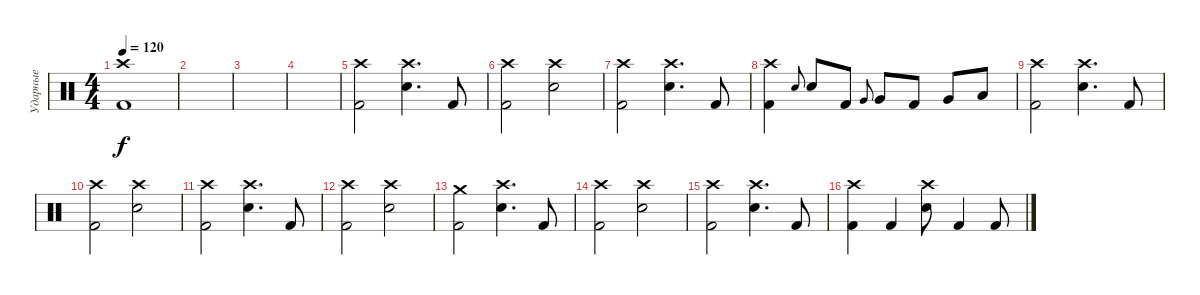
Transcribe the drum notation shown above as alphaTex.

\track ("Ударные" "Ударные") {instrument percussion}
\staff {score}
\articulation defaults
\ts (4 4)
\tempo 120
\clef neutral
\ks c
("Crash high (hit)" "Kick (hit) 2").1{dy f} |
|
|
|
("Crash high (hit)" "Kick (hit) 2").2 ("Crash high (hit)" "Snare (hit) 2").4{d} "Kick (hit) 2".8 |
("Crash high (hit)" "Kick (hit) 2").2 ("Crash high (hit)" "Snare (hit) 2").2 |
("Crash high (hit)" "Kick (hit) 2").2 ("Crash high (hit)" "Snare (hit) 2").4{d} "Kick (hit) 2".8 |
("Crash high (hit)" "Kick (hit) 2").4 "Snare (hit) 2".8{gr onbeat} "Snare (hit) 2".8 "Kick (hit) 2".8 "Very Low Tom (hit)".8{gr onbeat} "Very Low Tom (hit)".8 "Kick (hit) 2".8 "Very Low Tom (hit)".8 "Low Floor Tom (hit)".8 |
("Crash high (hit)" "Kick (hit) 2").2 ("Crash high (hit)" "Snare (hit) 2").4{d} "Kick (hit) 2".8 |
("Crash high (hit)" "Kick (hit) 2").2 ("Crash high (hit)" "Snare (hit) 2").2 |
("Crash high (hit)" "Kick (hit) 2").2 ("Crash high (hit)" "Snare (hit) 2").4{d} "Kick (hit) 2".8 |
("Crash high (hit)" "Kick (hit) 2").2 ("Crash high (hit)" "Snare (hit) 2").2 |
("Crash medium (hit)" "Kick (hit) 2").2 ("Crash high (hit)" "Snare (hit) 2").4{d} "Kick (hit) 2".8 |
("Crash high (hit)" "Kick (hit) 2").2 ("Crash high (hit)" "Snare (hit) 2").2 |
("Crash high (hit)" "Kick (hit) 2").2 ("Crash high (hit)" "Snare (hit) 2").4{d} "Kick (hit) 2".8 |
("Crash high (hit)" "Kick (hit) 2").4 "Kick (hit) 2".4 ("Crash high (hit)" "Snare (hit) 2").8 "Kick (hit) 2".4 "Kick (hit) 2".8
